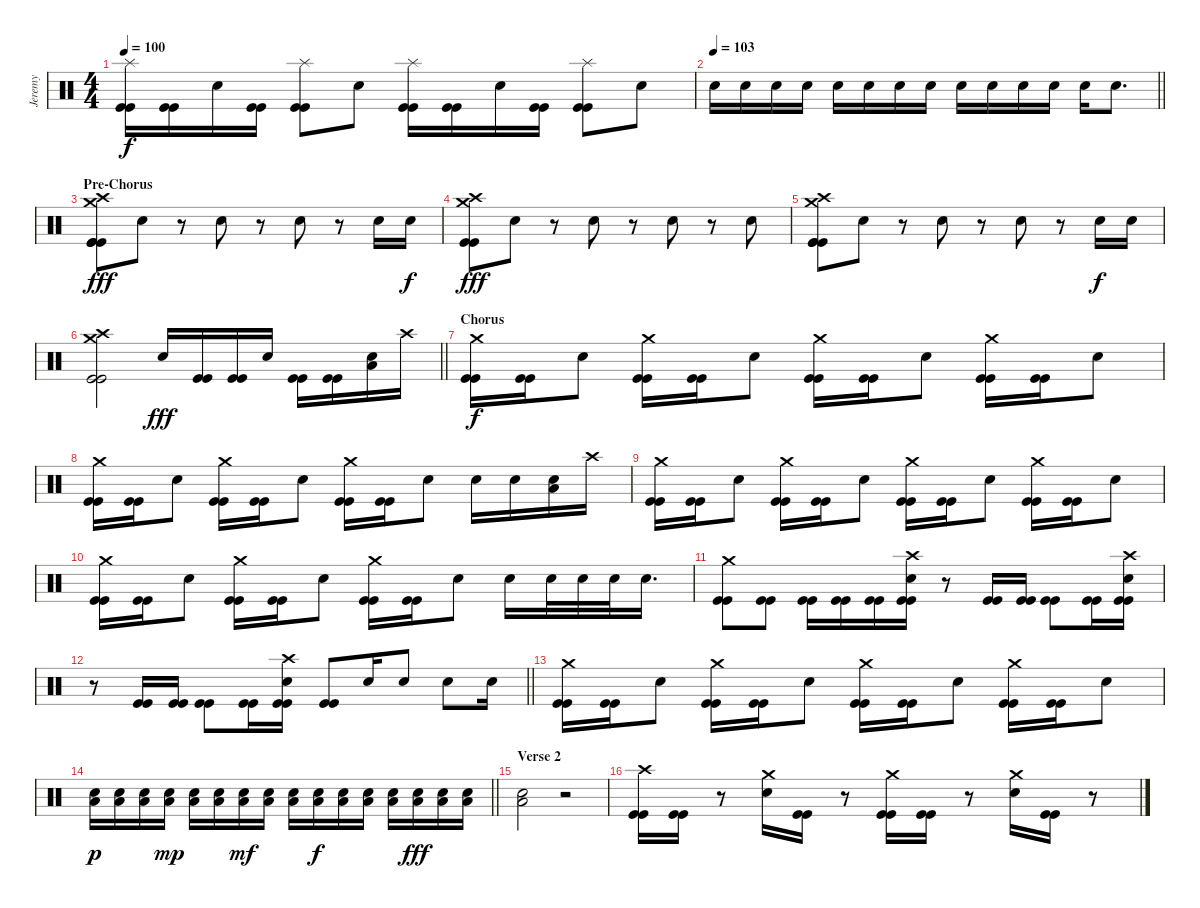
\track ("Jeremy" "Jeremy") {instrument percussion}
\staff {score}
\articulation defaults
\ts (4 4)
\tempo 100
\clef neutral
\ks c
("Splash (hit)" "Kick (hit)" "Kick (hit)").16{dy f} ("Kick (hit)" "Kick (hit)").16 "Electric Snare (hit)".16 ("Kick (hit)" "Kick (hit)").16 ("Splash (hit)" "Kick (hit)" "Kick (hit)").8 "Electric Snare (hit)".8 ("Splash (hit)" "Kick (hit)" "Kick (hit)").16 ("Kick (hit)" "Kick (hit)").16 "Electric Snare (hit)".16 ("Kick (hit)" "Kick (hit)").16 ("Splash (hit)" "Kick (hit)" "Kick (hit)").8 "Electric Snare (hit)".8 |
\tempo 103
\barLineRight lightlight "Electric Snare (hit)".16 "Electric Snare (hit)".16 "Electric Snare (hit)".16 "Electric Snare (hit)".16 "Electric Snare (hit)".16 "Electric Snare (hit)".16 "Electric Snare (hit)".16 "Electric Snare (hit)".16 "Electric Snare (hit)".16 "Electric Snare (hit)".16 "Electric Snare (hit)".16 "Electric Snare (hit)".16 "Electric Snare (hit)".16 "Electric Snare (hit)".8{d}
|
\section ("" "Pre-Chorus")
("Crash high (hit)" "Crash medium (hit)" "Kick (hit)" "Kick (hit)" "Kick (hit)").8{dy fff} "Electric Snare (hit)".8 r.8 "Electric Snare (hit)".8 r.8 "Electric Snare (hit)".8 r.8 "Electric Snare (hit)".16 "Electric Snare (hit)".16{dy f} |
("Crash high (hit)" "Crash medium (hit)" "Kick (hit)" "Kick (hit)").8{dy fff} "Electric Snare (hit)".8 r.8 "Electric Snare (hit)".8 r.8 "Electric Snare (hit)".8 r.8 "Electric Snare (hit)".8 |
("Crash high (hit)" "Crash medium (hit)" "Kick (hit)" "Kick (hit)" "Kick (hit)").8 "Electric Snare (hit)".8 r.8 "Electric Snare (hit)".8 r.8 "Electric Snare (hit)".8 r.8 "Electric Snare (hit)".16{dy f} "Electric Snare (hit)".16 |
\barLineRight lightlight
("Crash high (hit)" "Crash medium (hit)" "Kick (hit)" "Kick (hit)").2 "Electric Snare (hit)".16{dy fff} ("Kick (hit)" "Kick (hit)").16 ("Kick (hit)" "Kick (hit)").16 "Electric Snare (hit)".16 ("Kick (hit)" "Kick (hit)").16 ("Kick (hit)" "Kick (hit)").16 ("Electric Snare (hit)" "Low Tom (hit)").16 "Crash high (hit)".16 |
\section ("" "Chorus")
("Crash medium (hit)" "Kick (hit)" "Kick (hit)").16{dy f} ("Kick (hit)" "Kick (hit)").16 "Electric Snare (hit)".8 ("Crash medium (hit)" "Kick (hit)" "Kick (hit)").16 ("Kick (hit)" "Kick (hit)").16 "Electric Snare (hit)".8 ("Crash medium (hit)" "Kick (hit)" "Kick (hit)").16 ("Kick (hit)" "Kick (hit)").16 "Electric Snare (hit)".8 ("Crash medium (hit)" "Kick (hit)" "Kick (hit)").16 ("Kick (hit)" "Kick (hit)").16 "Electric Snare (hit)".8 |
("Crash medium (hit)" "Kick (hit)" "Kick (hit)").16 ("Kick (hit)" "Kick (hit)").16 "Electric Snare (hit)".8 ("Crash medium (hit)" "Kick (hit)" "Kick (hit)").16 ("Kick (hit)" "Kick (hit)").16 "Electric Snare (hit)".8 ("Crash medium (hit)" "Kick (hit)" "Kick (hit)").16 ("Kick (hit)" "Kick (hit)").16 "Electric Snare (hit)".8 "Electric Snare (hit)".16 "Electric Snare (hit)".16 ("Electric Snare (hit)" "Low Tom (hit)").16 "Crash high (hit)".16 |
("Crash medium (hit)" "Kick (hit)" "Kick (hit)").16 ("Kick (hit)" "Kick (hit)").16 "Electric Snare (hit)".8 ("Crash medium (hit)" "Kick (hit)" "Kick (hit)").16 ("Kick (hit)" "Kick (hit)").16 "Electric Snare (hit)".8 ("Crash medium (hit)" "Kick (hit)" "Kick (hit)").16 ("Kick (hit)" "Kick (hit)").16 "Electric Snare (hit)".8 ("Crash medium (hit)" "Kick (hit)" "Kick (hit)").16 ("Kick (hit)" "Kick (hit)").16 "Electric Snare (hit)".8 |
("Crash medium (hit)" "Kick (hit)" "Kick (hit)").16 ("Kick (hit)" "Kick (hit)").16 "Electric Snare (hit)".8 ("Crash medium (hit)" "Kick (hit)" "Kick (hit)").16 ("Kick (hit)" "Kick (hit)").16 "Electric Snare (hit)".8 ("Crash medium (hit)" "Kick (hit)" "Kick (hit)").16 ("Kick (hit)" "Kick (hit)").16 "Electric Snare (hit)".8 "Electric Snare (hit)".16 "Electric Snare (hit)".32 "Electric Snare (hit)".32 "Electric Snare (hit)".32 "Electric Snare (hit)".16{d} |
("Crash medium (hit)" "Kick (hit)" "Kick (hit)").8 ("Kick (hit)" "Kick (hit)").8 ("Kick (hit)" "Kick (hit)").16 ("Kick (hit)" "Kick (hit)").16 ("Kick (hit)" "Kick (hit)").16 ("Crash high (hit)" "Electric Snare (hit)" "Kick (hit)" "Kick (hit)").16 r.8 ("Kick (hit)" "Kick (hit)").16 ("Kick (hit)" "Kick (hit)").16 ("Kick (hit)" "Kick (hit)").8 ("Kick (hit)" "Kick (hit)").16 ("Crash high (hit)" "Electric Snare (hit)" "Kick (hit)" "Kick (hit)").16 |
\barLineRight lightlight
r.8 ("Kick (hit)" "Kick (hit)").16 ("Kick (hit)" "Kick (hit)").16 ("Kick (hit)" "Kick (hit)").8 ("Kick (hit)" "Kick (hit)").16 ("Crash high (hit)" "Electric Snare (hit)" "Kick (hit)" "Kick (hit)").16 ("Kick (hit)" "Kick (hit)").8 "Electric Snare (hit)".16 "Electric Snare (hit)".8 "Electric Snare (hit)".8 "Electric Snare (hit)".16 |
("Crash medium (hit)" "Kick (hit)" "Kick (hit)").16 ("Kick (hit)" "Kick (hit)").16 "Electric Snare (hit)".8 ("Crash medium (hit)" "Kick (hit)" "Kick (hit)").16 ("Kick (hit)" "Kick (hit)").16 "Electric Snare (hit)".8 ("Crash medium (hit)" "Kick (hit)" "Kick (hit)").16 ("Kick (hit)" "Kick (hit)").16 "Electric Snare (hit)".8 ("Crash medium (hit)" "Kick (hit)" "Kick (hit)").16 ("Kick (hit)" "Kick (hit)").16 "Electric Snare (hit)".8 |
\barLineRight lightlight
("Electric Snare (hit)" "Low Tom (hit)").16{dy p} ("Electric Snare (hit)" "Low Tom (hit)").16 ("Electric Snare (hit)" "Low Tom (hit)").16 ("Electric Snare (hit)" "Low Tom (hit)").16{dy mp} ("Electric Snare (hit)" "Low Tom (hit)").16 ("Electric Snare (hit)" "Low Tom (hit)").16 ("Electric Snare (hit)" "Low Tom (hit)").16{dy mf} ("Electric Snare (hit)" "Low Tom (hit)").16 ("Electric Snare (hit)" "Low Tom (hit)").16 ("Electric Snare (hit)" "Low Tom (hit)").16{dy f} ("Electric Snare (hit)" "Low Tom (hit)").16 ("Electric Snare (hit)" "Low Tom (hit)").16 ("Electric Snare (hit)" "Low Tom (hit)").16 ("Electric Snare (hit)" "Low Tom (hit)").16{dy fff} ("Electric Snare (hit)" "Low Tom (hit)").16 ("Low Tom (hit)" "Electric Snare (hit)").16 |
\section ("" "Verse 2")
("Low Tom (hit)" "Electric Snare (hit)").2 r.2 |
("Crash high (hit)" "Kick (hit)" "Kick (hit)").16 ("Kick (hit)" "Kick (hit)").16 r.8 ("Crash medium (hit)" "Electric Snare (hit)").16 ("Kick (hit)" "Kick (hit)").16 r.8 ("Crash medium (hit)" "Kick (hit)" "Kick (hit)").16 ("Kick (hit)" "Kick (hit)").16 r.8 ("Crash medium (hit)" "Electric Snare (hit)").16 ("Kick (hit)" "Kick (hit)").16 r.8
